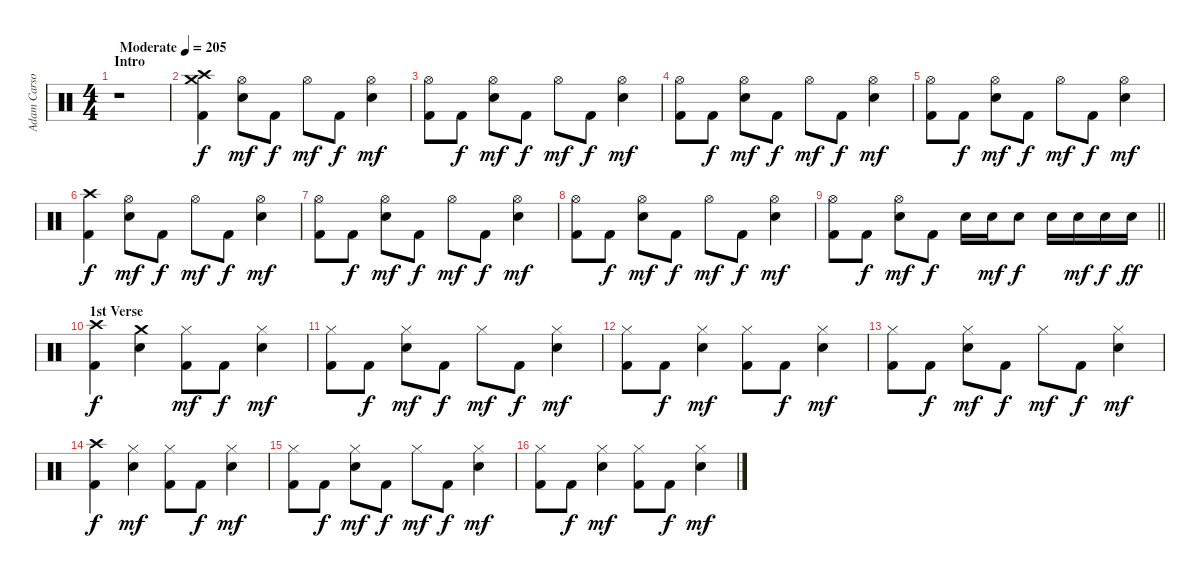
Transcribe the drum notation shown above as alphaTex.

\track ("Adam Carson" "Adam Carso") {instrument percussion}
\staff {score}
\articulation defaults
\ts (4 4)
\section ("" "Intro")
\tempo (205 "Moderate")
\clef neutral
\ks aminor
r.1{dy f} |
("Crash medium (hit)" "Crash high (hit)" "Kick (hit) 2").4 ("Hi-Hat (open)" "Snare (hit) 2").8{dy mf} "Kick (hit) 2".8{dy f} "Hi-Hat (open)".8{dy mf} "Kick (hit) 2".8{dy f} ("Hi-Hat (open)" "Snare (hit) 2").4{dy mf} |
("Hi-Hat (open)" "Kick (hit) 2").8 "Kick (hit) 2".8{dy f} ("Hi-Hat (open)" "Snare (hit) 2").8{dy mf} "Kick (hit) 2".8{dy f} "Hi-Hat (open)".8{dy mf} "Kick (hit) 2".8{dy f} ("Hi-Hat (open)" "Snare (hit) 2").4{dy mf} |
("Hi-Hat (open)" "Kick (hit) 2").8 "Kick (hit) 2".8{dy f} ("Hi-Hat (open)" "Snare (hit) 2").8{dy mf} "Kick (hit) 2".8{dy f} "Hi-Hat (open)".8{dy mf} "Kick (hit) 2".8{dy f} ("Hi-Hat (open)" "Snare (hit) 2").4{dy mf} |
("Hi-Hat (open)" "Kick (hit) 2").8 "Kick (hit) 2".8{dy f} ("Hi-Hat (open)" "Snare (hit) 2").8{dy mf} "Kick (hit) 2".8{dy f} "Hi-Hat (open)".8{dy mf} "Kick (hit) 2".8{dy f} ("Hi-Hat (open)" "Snare (hit) 2").4{dy mf} |
("Crash high (hit)" "Kick (hit) 2").4{dy f} ("Hi-Hat (open)" "Snare (hit) 2").8{dy mf} "Kick (hit) 2".8{dy f} "Hi-Hat (open)".8{dy mf} "Kick (hit) 2".8{dy f} ("Hi-Hat (open)" "Snare (hit) 2").4{dy mf} |
("Hi-Hat (open)" "Kick (hit) 2").8 "Kick (hit) 2".8{dy f} ("Hi-Hat (open)" "Snare (hit) 2").8{dy mf} "Kick (hit) 2".8{dy f} "Hi-Hat (open)".8{dy mf} "Kick (hit) 2".8{dy f} ("Hi-Hat (open)" "Snare (hit) 2").4{dy mf} |
("Hi-Hat (open)" "Kick (hit) 2").8 "Kick (hit) 2".8{dy f} ("Hi-Hat (open)" "Snare (hit) 2").8{dy mf} "Kick (hit) 2".8{dy f} "Hi-Hat (open)".8{dy mf} "Kick (hit) 2".8{dy f} ("Hi-Hat (open)" "Snare (hit) 2").4{dy mf} |
\barLineRight lightlight
("Hi-Hat (open)" "Kick (hit) 2").8 "Kick (hit) 2".8{dy f} ("Hi-Hat (open)" "Snare (hit) 2").8{dy mf} "Kick (hit) 2".8{dy f} "Snare (hit) 2".16 "Snare (hit) 2".16{dy mf} "Snare (hit) 2".8{dy f} "Snare (hit) 2".16 "Snare (hit) 2".16{dy mf} "Snare (hit) 2".16{dy f} "Snare (hit) 2".16{dy ff} |
\section ("" "1st Verse")
("Crash high (hit)" "Kick (hit) 2").4{dy f} ("Crash medium (hit)" "Snare (hit) 2").4 ("Hi-Hat (closed)" "Kick (hit) 2").8{dy mf} "Kick (hit) 2".8{dy f} ("Hi-Hat (closed)" "Snare (hit) 2").4{dy mf} |
("Hi-Hat (closed)" "Kick (hit) 2").8 "Kick (hit) 2".8{dy f} ("Hi-Hat (closed)" "Snare (hit) 2").8{dy mf} "Kick (hit) 2".8{dy f} "Hi-Hat (closed)".8{dy mf} "Kick (hit) 2".8{dy f} ("Hi-Hat (closed)" "Snare (hit) 2").4{dy mf} |
("Hi-Hat (closed)" "Kick (hit) 2").8 "Kick (hit) 2".8{dy f} ("Hi-Hat (closed)" "Snare (hit) 2").4{dy mf} ("Hi-Hat (closed)" "Kick (hit) 2").8 "Kick (hit) 2".8{dy f} ("Hi-Hat (closed)" "Snare (hit) 2").4{dy mf} |
("Hi-Hat (closed)" "Kick (hit) 2").8 "Kick (hit) 2".8{dy f} ("Hi-Hat (closed)" "Snare (hit) 2").8{dy mf} "Kick (hit) 2".8{dy f} "Hi-Hat (closed)".8{dy mf} "Kick (hit) 2".8{dy f} ("Hi-Hat (closed)" "Snare (hit) 2").4{dy mf} |
("Crash high (hit)" "Kick (hit) 2").4{dy f} ("Hi-Hat (closed)" "Snare (hit) 2").4{dy mf} ("Hi-Hat (closed)" "Kick (hit) 2").8 "Kick (hit) 2".8{dy f} ("Hi-Hat (closed)" "Snare (hit) 2").4{dy mf} |
("Hi-Hat (closed)" "Kick (hit) 2").8 "Kick (hit) 2".8{dy f} ("Hi-Hat (closed)" "Snare (hit) 2").8{dy mf} "Kick (hit) 2".8{dy f} "Hi-Hat (closed)".8{dy mf} "Kick (hit) 2".8{dy f} ("Hi-Hat (closed)" "Snare (hit) 2").4{dy mf} |
("Hi-Hat (closed)" "Kick (hit) 2").8 "Kick (hit) 2".8{dy f} ("Hi-Hat (closed)" "Snare (hit) 2").4{dy mf} ("Hi-Hat (closed)" "Kick (hit) 2").8 "Kick (hit) 2".8{dy f} ("Hi-Hat (closed)" "Snare (hit) 2").4{dy mf}
